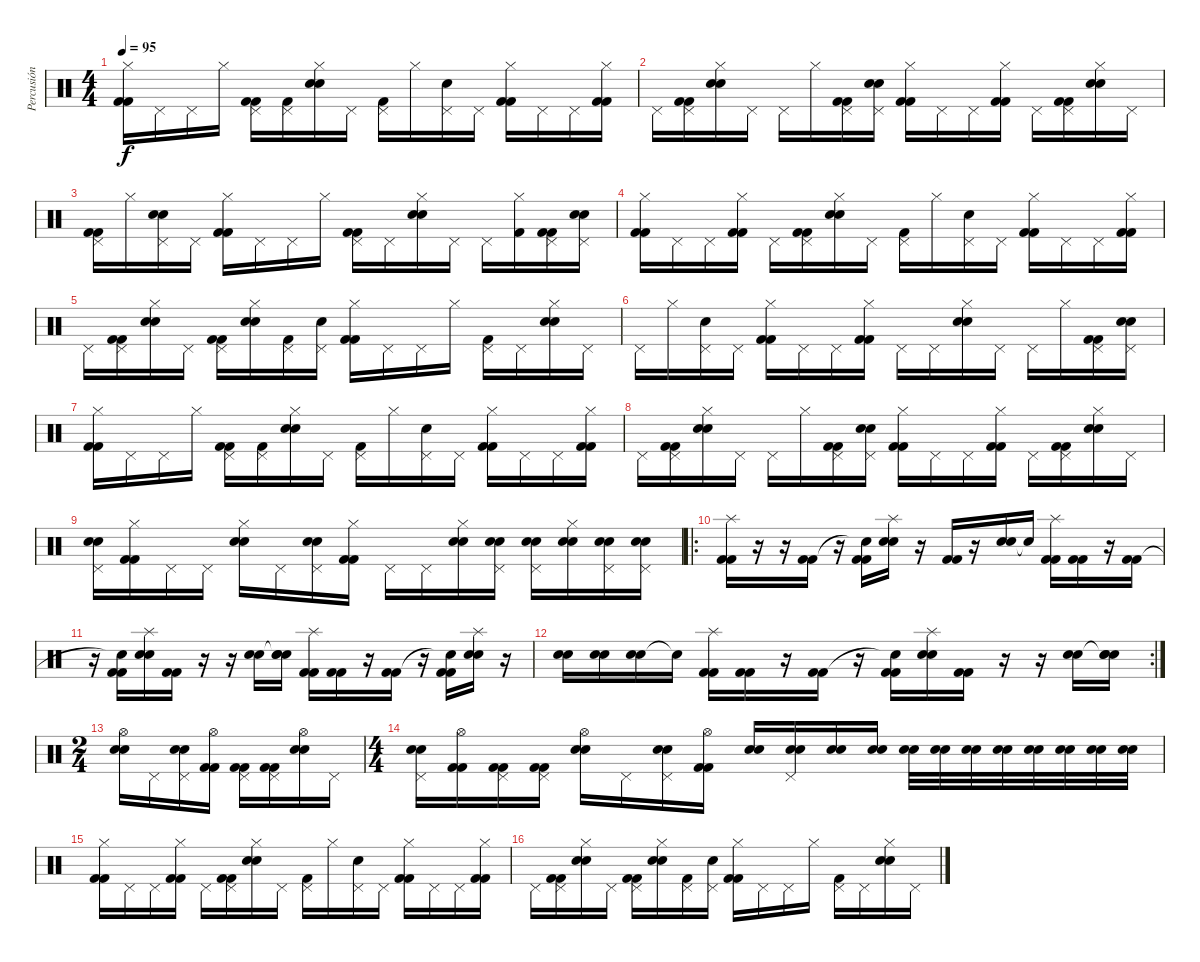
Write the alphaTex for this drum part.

\track ("Percusión" "Percusión") {instrument percussion}
\staff {score}
\articulation defaults
\ts (4 4)
\tempo 95
\clef neutral
\ks c
("Hi-Hat (closed)" "Kick (hit) 2" "Kick (hit) 2").16{dy f} "Pedal Hi-Hat (hit)".16 "Pedal Hi-Hat (hit)".16 "Hi-Hat (closed)".16 ("Pedal Hi-Hat (hit)" "Kick (hit) 2" "Kick (hit) 2").16 ("Pedal Hi-Hat (hit)" "Kick (hit) 2").16 ("Hi-Hat (closed)" "Electric Snare (hit)" "Electric Snare (hit)").16 "Pedal Hi-Hat (hit)".16 ("Pedal Hi-Hat (hit)" "Kick (hit) 2").16 "Hi-Hat (closed)".16 ("Pedal Hi-Hat (hit)" "Electric Snare (hit)").16 "Pedal Hi-Hat (hit)".16 ("Hi-Hat (closed)" "Kick (hit) 2" "Kick (hit) 2").16 "Pedal Hi-Hat (hit)".16 "Pedal Hi-Hat (hit)".16 ("Hi-Hat (closed)" "Kick (hit) 2" "Kick (hit) 2").16 |
"Pedal Hi-Hat (hit)".16 ("Pedal Hi-Hat (hit)" "Kick (hit) 2" "Kick (hit) 2").16 ("Hi-Hat (closed)" "Electric Snare (hit)" "Electric Snare (hit)").16 "Pedal Hi-Hat (hit)".16 "Pedal Hi-Hat (hit)".16 "Hi-Hat (closed)".16 ("Pedal Hi-Hat (hit)" "Kick (hit) 2" "Kick (hit) 2").16 ("Pedal Hi-Hat (hit)" "Electric Snare (hit)" "Electric Snare (hit)").16 ("Hi-Hat (closed)" "Kick (hit) 2" "Kick (hit) 2").16 "Pedal Hi-Hat (hit)".16 "Pedal Hi-Hat (hit)".16 ("Hi-Hat (closed)" "Kick (hit) 2" "Kick (hit) 2").16 "Pedal Hi-Hat (hit)".16 ("Pedal Hi-Hat (hit)" "Kick (hit) 2" "Kick (hit) 2").16 ("Hi-Hat (closed)" "Electric Snare (hit)" "Electric Snare (hit)").16 "Pedal Hi-Hat (hit)".16 |
("Pedal Hi-Hat (hit)" "Kick (hit) 2" "Kick (hit) 2").16 "Hi-Hat (closed)".16 ("Pedal Hi-Hat (hit)" "Electric Snare (hit)" "Electric Snare (hit)").16 "Pedal Hi-Hat (hit)".16 ("Hi-Hat (closed)" "Kick (hit) 2" "Kick (hit) 2").16 "Pedal Hi-Hat (hit)".16 "Pedal Hi-Hat (hit)".16 "Hi-Hat (closed)".16 ("Pedal Hi-Hat (hit)" "Kick (hit) 2" "Kick (hit) 2").16 "Pedal Hi-Hat (hit)".16 ("Hi-Hat (closed)" "Electric Snare (hit)" "Electric Snare (hit)").16 "Pedal Hi-Hat (hit)".16 "Pedal Hi-Hat (hit)".16 ("Hi-Hat (closed)" "Kick (hit) 2").16 ("Pedal Hi-Hat (hit)" "Kick (hit) 2" "Kick (hit) 2").16 ("Pedal Hi-Hat (hit)" "Electric Snare (hit)" "Electric Snare (hit)").16 |
("Hi-Hat (closed)" "Kick (hit) 2" "Kick (hit) 2").16 "Pedal Hi-Hat (hit)".16 "Pedal Hi-Hat (hit)".16 ("Hi-Hat (closed)" "Kick (hit) 2" "Kick (hit) 2").16 "Pedal Hi-Hat (hit)".16 ("Pedal Hi-Hat (hit)" "Kick (hit) 2" "Kick (hit) 2").16 ("Hi-Hat (closed)" "Electric Snare (hit)" "Electric Snare (hit)").16 "Pedal Hi-Hat (hit)".16 ("Pedal Hi-Hat (hit)" "Kick (hit) 2").16 "Hi-Hat (closed)".16 ("Pedal Hi-Hat (hit)" "Electric Snare (hit)").16 "Pedal Hi-Hat (hit)".16 ("Hi-Hat (closed)" "Kick (hit) 2" "Kick (hit) 2").16 "Pedal Hi-Hat (hit)".16 "Pedal Hi-Hat (hit)".16 ("Hi-Hat (closed)" "Kick (hit) 2" "Kick (hit) 2").16 |
"Pedal Hi-Hat (hit)".16 ("Pedal Hi-Hat (hit)" "Kick (hit) 2" "Kick (hit) 2").16 ("Hi-Hat (closed)" "Electric Snare (hit)" "Electric Snare (hit)").16 "Pedal Hi-Hat (hit)".16 ("Pedal Hi-Hat (hit)" "Kick (hit) 2" "Kick (hit) 2").16 ("Hi-Hat (closed)" "Electric Snare (hit)" "Electric Snare (hit)").16 ("Pedal Hi-Hat (hit)" "Kick (hit) 2").16 ("Pedal Hi-Hat (hit)" "Electric Snare (hit)").16 ("Hi-Hat (closed)" "Kick (hit) 2" "Kick (hit) 2").16 "Pedal Hi-Hat (hit)".16 "Pedal Hi-Hat (hit)".16 "Hi-Hat (closed)".16 ("Pedal Hi-Hat (hit)" "Kick (hit) 2").16 "Pedal Hi-Hat (hit)".16 ("Hi-Hat (closed)" "Electric Snare (hit)" "Electric Snare (hit)").16 "Pedal Hi-Hat (hit)".16 |
"Pedal Hi-Hat (hit)".16 "Hi-Hat (closed)".16 ("Pedal Hi-Hat (hit)" "Electric Snare (hit)").16 "Pedal Hi-Hat (hit)".16 ("Hi-Hat (closed)" "Kick (hit) 2" "Kick (hit) 2").16 "Pedal Hi-Hat (hit)".16 "Pedal Hi-Hat (hit)".16 ("Hi-Hat (closed)" "Kick (hit) 2" "Kick (hit) 2").16 "Pedal Hi-Hat (hit)".16 "Pedal Hi-Hat (hit)".16 ("Hi-Hat (closed)" "Electric Snare (hit)" "Electric Snare (hit)").16 "Pedal Hi-Hat (hit)".16 "Pedal Hi-Hat (hit)".16 "Hi-Hat (closed)".16 ("Pedal Hi-Hat (hit)" "Kick (hit) 2" "Kick (hit) 2").16 ("Pedal Hi-Hat (hit)" "Electric Snare (hit)" "Electric Snare (hit)").16 |
("Hi-Hat (closed)" "Kick (hit) 2" "Kick (hit) 2").16 "Pedal Hi-Hat (hit)".16 "Pedal Hi-Hat (hit)".16 "Hi-Hat (closed)".16 ("Pedal Hi-Hat (hit)" "Kick (hit) 2" "Kick (hit) 2").16 ("Pedal Hi-Hat (hit)" "Kick (hit) 2").16 ("Hi-Hat (closed)" "Electric Snare (hit)" "Electric Snare (hit)").16 "Pedal Hi-Hat (hit)".16 ("Pedal Hi-Hat (hit)" "Kick (hit) 2").16 "Hi-Hat (closed)".16 ("Pedal Hi-Hat (hit)" "Electric Snare (hit)").16 "Pedal Hi-Hat (hit)".16 ("Hi-Hat (closed)" "Kick (hit) 2" "Kick (hit) 2").16 "Pedal Hi-Hat (hit)".16 "Pedal Hi-Hat (hit)".16 ("Hi-Hat (closed)" "Kick (hit) 2" "Kick (hit) 2").16 |
"Pedal Hi-Hat (hit)".16 ("Pedal Hi-Hat (hit)" "Kick (hit) 2" "Kick (hit) 2").16 ("Hi-Hat (closed)" "Electric Snare (hit)" "Electric Snare (hit)").16 "Pedal Hi-Hat (hit)".16 "Pedal Hi-Hat (hit)".16 "Hi-Hat (closed)".16 ("Pedal Hi-Hat (hit)" "Kick (hit) 2" "Kick (hit) 2").16 ("Pedal Hi-Hat (hit)" "Electric Snare (hit)" "Electric Snare (hit)").16 ("Hi-Hat (closed)" "Kick (hit) 2" "Kick (hit) 2").16 "Pedal Hi-Hat (hit)".16 "Pedal Hi-Hat (hit)".16 ("Hi-Hat (closed)" "Kick (hit) 2" "Kick (hit) 2").16 "Pedal Hi-Hat (hit)".16 ("Pedal Hi-Hat (hit)" "Kick (hit) 2" "Kick (hit) 2").16 ("Hi-Hat (closed)" "Electric Snare (hit)" "Electric Snare (hit)").16 "Pedal Hi-Hat (hit)".16 |
("Pedal Hi-Hat (hit)" "Electric Snare (hit)" "Electric Snare (hit)").16 ("Hi-Hat (closed)" "Kick (hit) 2" "Kick (hit) 2").16 "Pedal Hi-Hat (hit)".16 "Pedal Hi-Hat (hit)".16 ("Hi-Hat (closed)" "Electric Snare (hit)" "Electric Snare (hit)").16 "Pedal Hi-Hat (hit)".16 ("Pedal Hi-Hat (hit)" "Electric Snare (hit)" "Electric Snare (hit)").16 ("Hi-Hat (closed)" "Kick (hit) 2" "Kick (hit) 2").16 "Pedal Hi-Hat (hit)".16 "Pedal Hi-Hat (hit)".16 ("Hi-Hat (closed)" "Electric Snare (hit)" "Electric Snare (hit)").16 ("Pedal Hi-Hat (hit)" "Electric Snare (hit)" "Electric Snare (hit)").16 ("Pedal Hi-Hat (hit)" "Electric Snare (hit)" "Electric Snare (hit)").16 ("Hi-Hat (closed)" "Electric Snare (hit)" "Electric Snare (hit)").16 ("Pedal Hi-Hat (hit)" "Electric Snare (hit)" "Electric Snare (hit)").16 ("Pedal Hi-Hat (hit)" "Electric Snare (hit)" "Electric Snare (hit)").16 |
\ro
("Splash (hit)" "Kick (hit) 2" "Kick (hit) 2").16 r.16 r.16 ("Kick (hit) 2" "Kick (hit) 2").16 r.16 ("Snare (hit)"{t} "Kick (hit) 2" "Kick (hit) 2").16 ("Splash (hit)" "Electric Snare (hit)" "Electric Snare (hit)").16 r.16 ("Kick (hit) 2" "Kick (hit) 2").16 r.16 ("Electric Snare (hit)" "Electric Snare (hit)").16 "Snare (hit)"{t}.16 ("Splash (hit)" "Kick (hit) 2" "Kick (hit) 2").16 ("Kick (hit) 2" "Kick (hit) 2").16 r.16 ("Kick (hit) 2" "Kick (hit) 2").16 |
r.16 ("Snare (hit)"{t} "Kick (hit) 2" "Kick (hit) 2").16 ("Splash (hit)" "Electric Snare (hit)" "Electric Snare (hit)").16 ("Kick (hit) 2" "Kick (hit) 2").16 r.16 r.16 ("Electric Snare (hit)" "Electric Snare (hit)").16 ("Snare (hit)"{t} "Electric Snare (hit)" "Electric Snare (hit)").16 ("Splash (hit)" "Kick (hit) 2" "Kick (hit) 2").16 ("Kick (hit) 2" "Kick (hit) 2").16 r.16 ("Kick (hit) 2" "Kick (hit) 2").16 r.16 ("Snare (hit)"{t} "Kick (hit) 2" "Kick (hit) 2").16 ("Splash (hit)" "Electric Snare (hit)" "Electric Snare (hit)").16 r.16 |
\rc 2
("Electric Snare (hit)" "Electric Snare (hit)").16 ("Electric Snare (hit)" "Electric Snare (hit)").16 ("Electric Snare (hit)" "Electric Snare (hit)").16 "Snare (hit)"{t}.16 ("Splash (hit)" "Kick (hit) 2" "Kick (hit) 2").16 ("Kick (hit) 2" "Kick (hit) 2").16 r.16 ("Kick (hit) 2" "Kick (hit) 2").16 r.16 ("Snare (hit)"{t} "Kick (hit) 2" "Kick (hit) 2").16 ("Splash (hit)" "Electric Snare (hit)" "Electric Snare (hit)").16 ("Kick (hit) 2" "Kick (hit) 2").16 r.16 r.16 ("Electric Snare (hit)" "Electric Snare (hit)").16 ("Snare (hit)"{t} "Electric Snare (hit)" "Electric Snare (hit)").16 |
\ts (2 4)
("Hi-Hat (open)" "Electric Snare (hit)" "Electric Snare (hit)").16 "Pedal Hi-Hat (hit)".16 ("Pedal Hi-Hat (hit)" "Electric Snare (hit)" "Electric Snare (hit)").16 ("Hi-Hat (open)" "Kick (hit) 2" "Kick (hit) 2").16 ("Pedal Hi-Hat (hit)" "Kick (hit) 2" "Kick (hit) 2").16 ("Pedal Hi-Hat (hit)" "Kick (hit) 2" "Kick (hit) 2").16 ("Hi-Hat (open)" "Electric Snare (hit)" "Electric Snare (hit)").16 "Pedal Hi-Hat (hit)".16 |
\ts (4 4)
("Pedal Hi-Hat (hit)" "Electric Snare (hit)" "Electric Snare (hit)").16 ("Hi-Hat (open)" "Kick (hit) 2" "Kick (hit) 2").16 ("Pedal Hi-Hat (hit)" "Kick (hit) 2" "Kick (hit) 2").16 ("Pedal Hi-Hat (hit)" "Kick (hit) 2" "Kick (hit) 2").16 ("Hi-Hat (open)" "Electric Snare (hit)" "Electric Snare (hit)").16 "Pedal Hi-Hat (hit)".16 ("Pedal Hi-Hat (hit)" "Electric Snare (hit)" "Electric Snare (hit)").16 ("Hi-Hat (open)" "Kick (hit) 2" "Kick (hit) 2").16 ("Electric Snare (hit)" "Electric Snare (hit)").16 ("Pedal Hi-Hat (hit)" "Electric Snare (hit)" "Electric Snare (hit)").16 ("Electric Snare (hit)" "Electric Snare (hit)").16 ("Electric Snare (hit)" "Electric Snare (hit)").16 ("Electric Snare (hit)" "Electric Snare (hit)").32 ("Electric Snare (hit)" "Electric Snare (hit)").32 ("Electric Snare (hit)" "Electric Snare (hit)").32 ("Electric Snare (hit)" "Electric Snare (hit)").32 ("Electric Snare (hit)" "Electric Snare (hit)").32 ("Electric Snare (hit)" "Electric Snare (hit)").32 ("Electric Snare (hit)" "Electric Snare (hit)").32 ("Electric Snare (hit)" "Electric Snare (hit)").32 |
("Hi-Hat (closed)" "Kick (hit) 2" "Kick (hit) 2").16 "Pedal Hi-Hat (hit)".16 "Pedal Hi-Hat (hit)".16 ("Hi-Hat (closed)" "Kick (hit) 2" "Kick (hit) 2").16 "Pedal Hi-Hat (hit)".16 ("Pedal Hi-Hat (hit)" "Kick (hit) 2" "Kick (hit) 2").16 ("Hi-Hat (closed)" "Electric Snare (hit)" "Electric Snare (hit)").16 "Pedal Hi-Hat (hit)".16 ("Pedal Hi-Hat (hit)" "Kick (hit) 2").16 "Hi-Hat (closed)".16 ("Pedal Hi-Hat (hit)" "Electric Snare (hit)").16 "Pedal Hi-Hat (hit)".16 ("Hi-Hat (closed)" "Kick (hit) 2" "Kick (hit) 2").16 "Pedal Hi-Hat (hit)".16 "Pedal Hi-Hat (hit)".16 ("Hi-Hat (closed)" "Kick (hit) 2" "Kick (hit) 2").16 |
"Pedal Hi-Hat (hit)".16 ("Pedal Hi-Hat (hit)" "Kick (hit) 2" "Kick (hit) 2").16 ("Hi-Hat (closed)" "Electric Snare (hit)" "Electric Snare (hit)").16 "Pedal Hi-Hat (hit)".16 ("Pedal Hi-Hat (hit)" "Kick (hit) 2" "Kick (hit) 2").16 ("Hi-Hat (closed)" "Electric Snare (hit)" "Electric Snare (hit)").16 ("Pedal Hi-Hat (hit)" "Kick (hit) 2").16 ("Pedal Hi-Hat (hit)" "Electric Snare (hit)").16 ("Hi-Hat (closed)" "Kick (hit) 2" "Kick (hit) 2").16 "Pedal Hi-Hat (hit)".16 "Pedal Hi-Hat (hit)".16 "Hi-Hat (closed)".16 ("Pedal Hi-Hat (hit)" "Kick (hit) 2").16 "Pedal Hi-Hat (hit)".16 ("Hi-Hat (closed)" "Electric Snare (hit)" "Electric Snare (hit)").16 "Pedal Hi-Hat (hit)".16
